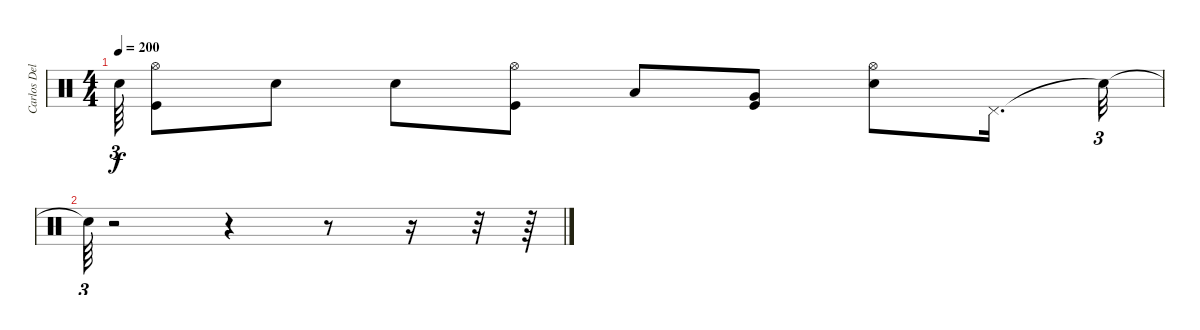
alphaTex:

\track ("Carlos Delgado" "Carlos Del") {instrument percussion}
\staff {score}
\articulation defaults
\ts (4 4)
\tempo 200
\clef neutral
\ks c "Snare (hit)"{t}.64{tu (3 2) dy f}
("Hi-Hat (open)" "Kick (hit)").8 "Electric Snare (hit)".8 "Electric Snare (hit)".8 ("Hi-Hat (open)" "Kick (hit)").8 "Low Tom (hit)".8 ("Kick (hit)" "Very Low Tom (hit)").8 ("Hi-Hat (open)" "Electric Snare (hit)").8 "Pedal Hi-Hat (hit)".16{d} "Snare (hit)"{t}.32{tu (3 2)} |
"Snare (hit)"{t}.64{tu (3 2)} r.2 r.4 r.8 r.16 r.32 r.64
